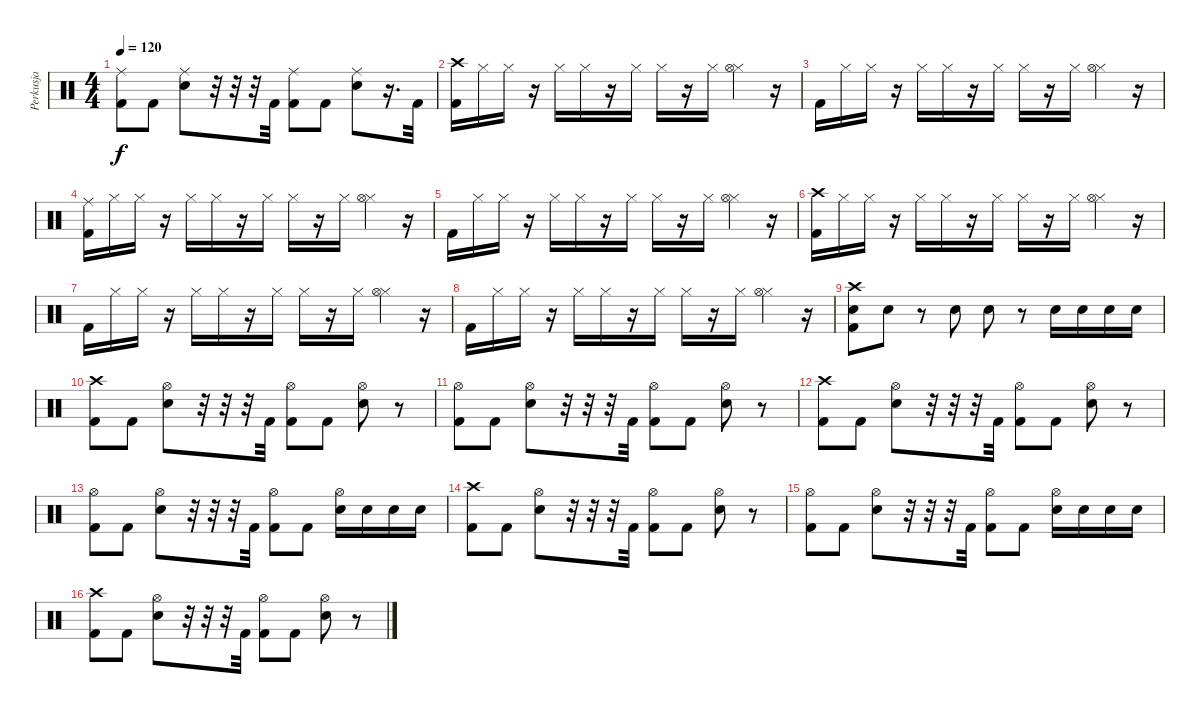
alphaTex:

\track ("Perkusja" "Perkusja") {instrument percussion}
\staff {score}
\articulation defaults
\ts (4 4)
\tempo 120
\clef neutral
\ks c
("Ride (middle)" "Kick (hit) 2").8{dy f} "Kick (hit) 2".8 ("Ride (middle)" "Electric Snare (hit)").8 r.32 r.32 r.32 "Kick (hit) 2".32 ("Ride (middle)" "Kick (hit) 2").8 "Kick (hit) 2".8 ("Ride (middle)" "Electric Snare (hit)").8 r.16{d} "Kick (hit) 2".32 |
("Crash high (hit)" "Kick (hit) 2").16 "Hi-Hat (closed)".16 "Hi-Hat (closed)".16 r.16 "Hi-Hat (closed)".16 "Hi-Hat (closed)".16 r.16 "Hi-Hat (closed)".16 "Hi-Hat (closed)".16 r.16 "Hi-Hat (closed)".16 ("Hi-Hat (closed)" "Hi-Hat (open)").4 r.16 |
"Kick (hit) 2".16 "Hi-Hat (closed)".16 "Hi-Hat (closed)".16 r.16 "Hi-Hat (closed)".16 "Hi-Hat (closed)".16 r.16 "Hi-Hat (closed)".16 "Hi-Hat (closed)".16 r.16 "Hi-Hat (closed)".16 ("Hi-Hat (closed)" "Hi-Hat (open)").4 r.16 |
("Ride (middle)" "Kick (hit) 2").16 "Hi-Hat (closed)".16 "Hi-Hat (closed)".16 r.16 "Hi-Hat (closed)".16 "Hi-Hat (closed)".16 r.16 "Hi-Hat (closed)".16 "Hi-Hat (closed)".16 r.16 "Hi-Hat (closed)".16 ("Hi-Hat (closed)" "Hi-Hat (open)").4 r.16 |
"Kick (hit) 2".16 "Hi-Hat (closed)".16 "Hi-Hat (closed)".16 r.16 "Hi-Hat (closed)".16 "Hi-Hat (closed)".16 r.16 "Hi-Hat (closed)".16 "Hi-Hat (closed)".16 r.16 "Hi-Hat (closed)".16 ("Hi-Hat (closed)" "Hi-Hat (open)").4 r.16 |
("Crash high (hit)" "Kick (hit) 2").16 "Hi-Hat (closed)".16 "Hi-Hat (closed)".16 r.16 "Hi-Hat (closed)".16 "Hi-Hat (closed)".16 r.16 "Hi-Hat (closed)".16 "Hi-Hat (closed)".16 r.16 "Hi-Hat (closed)".16 ("Hi-Hat (closed)" "Hi-Hat (open)").4 r.16 |
"Kick (hit) 2".16 "Hi-Hat (closed)".16 "Hi-Hat (closed)".16 r.16 "Hi-Hat (closed)".16 "Hi-Hat (closed)".16 r.16 "Hi-Hat (closed)".16 "Hi-Hat (closed)".16 r.16 "Hi-Hat (closed)".16 ("Hi-Hat (closed)" "Hi-Hat (open)").4 r.16 |
"Kick (hit) 2".16 "Hi-Hat (closed)".16 "Hi-Hat (closed)".16 r.16 "Hi-Hat (closed)".16 "Hi-Hat (closed)".16 r.16 "Hi-Hat (closed)".16 "Hi-Hat (closed)".16 r.16 "Hi-Hat (closed)".16 ("Hi-Hat (closed)" "Hi-Hat (open)").4 r.16 |
("Crash high (hit)" "Electric Snare (hit)" "Kick (hit) 2").8 "Electric Snare (hit)".8 r.8 "Electric Snare (hit)".8 "Electric Snare (hit)".8 r.8 "Electric Snare (hit)".16 "Electric Snare (hit)".16 "Electric Snare (hit)".16 "Electric Snare (hit)".16 |
("Crash high (hit)" "Kick (hit) 2").8 "Kick (hit) 2".8 ("Hi-Hat (open)" "Electric Snare (hit)").8 r.32 r.32 r.32 "Kick (hit) 2".32 ("Hi-Hat (open)" "Kick (hit) 2").8 "Kick (hit) 2".8 ("Hi-Hat (open)" "Electric Snare (hit)").8 r.8 |
("Hi-Hat (open)" "Kick (hit) 2").8 "Kick (hit) 2".8 ("Hi-Hat (open)" "Electric Snare (hit)").8 r.32 r.32 r.32 "Kick (hit) 2".32 ("Hi-Hat (open)" "Kick (hit) 2").8 "Kick (hit) 2".8 ("Hi-Hat (open)" "Electric Snare (hit)").8 r.8 |
("Crash high (hit)" "Kick (hit) 2").8 "Kick (hit) 2".8 ("Hi-Hat (open)" "Electric Snare (hit)").8 r.32 r.32 r.32 "Kick (hit) 2".32 ("Hi-Hat (open)" "Kick (hit) 2").8 "Kick (hit) 2".8 ("Hi-Hat (open)" "Electric Snare (hit)").8 r.8 |
("Hi-Hat (open)" "Kick (hit) 2").8 "Kick (hit) 2".8 ("Hi-Hat (open)" "Electric Snare (hit)").8 r.32 r.32 r.32 "Kick (hit) 2".32 ("Hi-Hat (open)" "Kick (hit) 2").8 "Kick (hit) 2".8 ("Hi-Hat (open)" "Electric Snare (hit)").16 "Electric Snare (hit)".16 "Electric Snare (hit)".16 "Electric Snare (hit)".16 |
("Crash high (hit)" "Kick (hit) 2").8 "Kick (hit) 2".8 ("Hi-Hat (open)" "Electric Snare (hit)").8 r.32 r.32 r.32 "Kick (hit) 2".32 ("Hi-Hat (open)" "Kick (hit) 2").8 "Kick (hit) 2".8 ("Hi-Hat (open)" "Electric Snare (hit)").8 r.8 |
("Hi-Hat (open)" "Kick (hit) 2").8 "Kick (hit) 2".8 ("Hi-Hat (open)" "Electric Snare (hit)").8 r.32 r.32 r.32 "Kick (hit) 2".32 ("Hi-Hat (open)" "Kick (hit) 2").8 "Kick (hit) 2".8 ("Hi-Hat (open)" "Electric Snare (hit)").16 "Electric Snare (hit)".16 "Electric Snare (hit)".16 "Electric Snare (hit)".16 |
("Crash high (hit)" "Kick (hit) 2").8 "Kick (hit) 2".8 ("Hi-Hat (open)" "Electric Snare (hit)").8 r.32 r.32 r.32 "Kick (hit) 2".32 ("Hi-Hat (open)" "Kick (hit) 2").8 "Kick (hit) 2".8 ("Hi-Hat (open)" "Electric Snare (hit)").8 r.8
